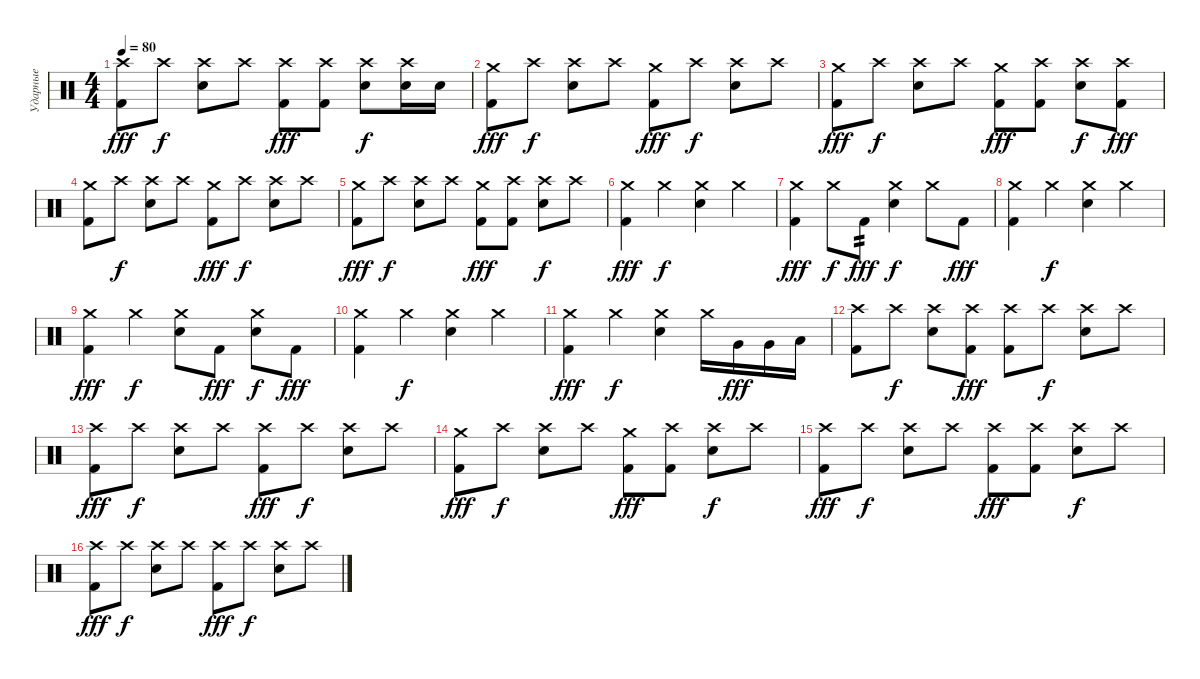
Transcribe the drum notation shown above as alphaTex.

\track ("Ударные" "Ударные") {instrument percussion}
\staff {score}
\articulation defaults
\ts (4 4)
\tempo 80
\clef neutral
\ks c
("Crash high (hit)" "Kick (hit) 2").8{dy fff} "Crash high (hit)".8{dy f} ("Crash high (hit)" "Electric Snare (hit)").8 "Crash high (hit)".8 ("Crash high (hit)" "Kick (hit) 2").8{dy fff} ("Crash high (hit)" "Kick (hit) 2").8 ("Crash high (hit)" "Electric Snare (hit)").8{dy f} ("Crash high (hit)" "Electric Snare (hit)").16 "Electric Snare (hit)".16 |
("Crash medium (hit)" "Kick (hit) 2").8{dy fff} "Crash high (hit)".8{dy f} ("Crash high (hit)" "Electric Snare (hit)").8 "Crash high (hit)".8 ("Crash medium (hit)" "Kick (hit) 2").8{dy fff} "Crash high (hit)".8{dy f} ("Crash high (hit)" "Electric Snare (hit)").8 "Crash high (hit)".8 |
("Crash medium (hit)" "Kick (hit) 2").8{dy fff} "Crash high (hit)".8{dy f} ("Crash high (hit)" "Electric Snare (hit)").8 "Crash high (hit)".8 ("Crash medium (hit)" "Kick (hit) 2").8{dy fff} ("Crash high (hit)" "Kick (hit) 2").8 ("Crash high (hit)" "Electric Snare (hit)").8{dy f} ("Crash high (hit)" "Kick (hit) 2").8{dy fff} |
("Crash medium (hit)" "Kick (hit) 2").8 "Crash high (hit)".8{dy f} ("Crash high (hit)" "Electric Snare (hit)").8 "Crash high (hit)".8 ("Crash medium (hit)" "Kick (hit) 2").8{dy fff} "Crash high (hit)".8{dy f} ("Crash high (hit)" "Electric Snare (hit)").8 "Crash high (hit)".8 |
("Crash medium (hit)" "Kick (hit) 2").8{dy fff} "Crash high (hit)".8{dy f} ("Crash high (hit)" "Electric Snare (hit)").8 "Crash high (hit)".8 ("Crash medium (hit)" "Kick (hit) 2").8{dy fff} ("Crash high (hit)" "Kick (hit) 2").8 ("Crash high (hit)" "Electric Snare (hit)").8{dy f} "Crash high (hit)".8 |
("Crash medium (hit)" "Kick (hit) 2").4{dy fff} "Crash medium (hit)".4{dy f} ("Crash medium (hit)" "Electric Snare (hit)").4 "Crash medium (hit)".4 |
("Crash medium (hit)" "Kick (hit) 2").4{dy fff} "Crash medium (hit)".8{dy f} "Kick (hit) 2".8{tp 2 dy fff} ("Crash medium (hit)" "Electric Snare (hit)").4{dy f} "Crash medium (hit)".8 "Kick (hit) 2".8{dy fff} |
("Crash medium (hit)" "Kick (hit) 2").4 "Crash medium (hit)".4{dy f} ("Crash medium (hit)" "Electric Snare (hit)").4 "Crash medium (hit)".4 |
("Crash medium (hit)" "Kick (hit) 2").4{dy fff} "Crash medium (hit)".4{dy f} ("Crash medium (hit)" "Electric Snare (hit)").8 "Kick (hit) 2".8{dy fff} ("Crash medium (hit)" "Electric Snare (hit)").8{dy f} "Kick (hit) 2".8{dy fff} |
("Crash medium (hit)" "Kick (hit) 2").4 "Crash medium (hit)".4{dy f} ("Crash medium (hit)" "Electric Snare (hit)").4 "Crash medium (hit)".4 |
("Crash medium (hit)" "Kick (hit) 2").4{dy fff} "Crash medium (hit)".4{dy f} ("Crash medium (hit)" "Electric Snare (hit)").4 "Crash medium (hit)".16 "Very Low Tom (hit)".16{dy fff} "Very Low Tom (hit)".16 "Low Floor Tom (hit)".16 |
("Crash high (hit)" "Kick (hit) 2").8 "Crash high (hit)".8{dy f} ("Crash high (hit)" "Electric Snare (hit)").8 ("Crash high (hit)" "Kick (hit) 2").8{dy fff} ("Crash high (hit)" "Kick (hit) 2").8 "Crash high (hit)".8{dy f} ("Crash high (hit)" "Electric Snare (hit)").8 "Crash high (hit)".8 |
("Crash high (hit)" "Kick (hit) 2").8{dy fff} "Crash high (hit)".8{dy f} ("Crash high (hit)" "Electric Snare (hit)").8 "Crash high (hit)".8 ("Crash high (hit)" "Kick (hit) 2").8{dy fff} "Crash high (hit)".8{dy f} ("Crash high (hit)" "Electric Snare (hit)").8 "Crash high (hit)".8 |
("Crash medium (hit)" "Kick (hit) 2").8{dy fff} "Crash high (hit)".8{dy f} ("Crash high (hit)" "Electric Snare (hit)").8 "Crash high (hit)".8 ("Crash medium (hit)" "Kick (hit) 2").8{dy fff} ("Crash high (hit)" "Kick (hit) 2").8 ("Crash high (hit)" "Electric Snare (hit)").8{dy f} "Crash high (hit)".8 |
("Crash high (hit)" "Kick (hit) 2").8{dy fff} "Crash high (hit)".8{dy f} ("Crash high (hit)" "Electric Snare (hit)").8 "Crash high (hit)".8 ("Crash high (hit)" "Kick (hit) 2").8{dy fff} ("Crash high (hit)" "Kick (hit) 2").8 ("Crash high (hit)" "Electric Snare (hit)").8{dy f} "Crash high (hit)".8 |
("Crash high (hit)" "Kick (hit) 2").8{dy fff} "Crash high (hit)".8{dy f} ("Crash high (hit)" "Electric Snare (hit)").8 "Crash high (hit)".8 ("Crash high (hit)" "Kick (hit) 2").8{dy fff} "Crash high (hit)".8{dy f} ("Crash high (hit)" "Electric Snare (hit)").8 "Crash high (hit)".8
